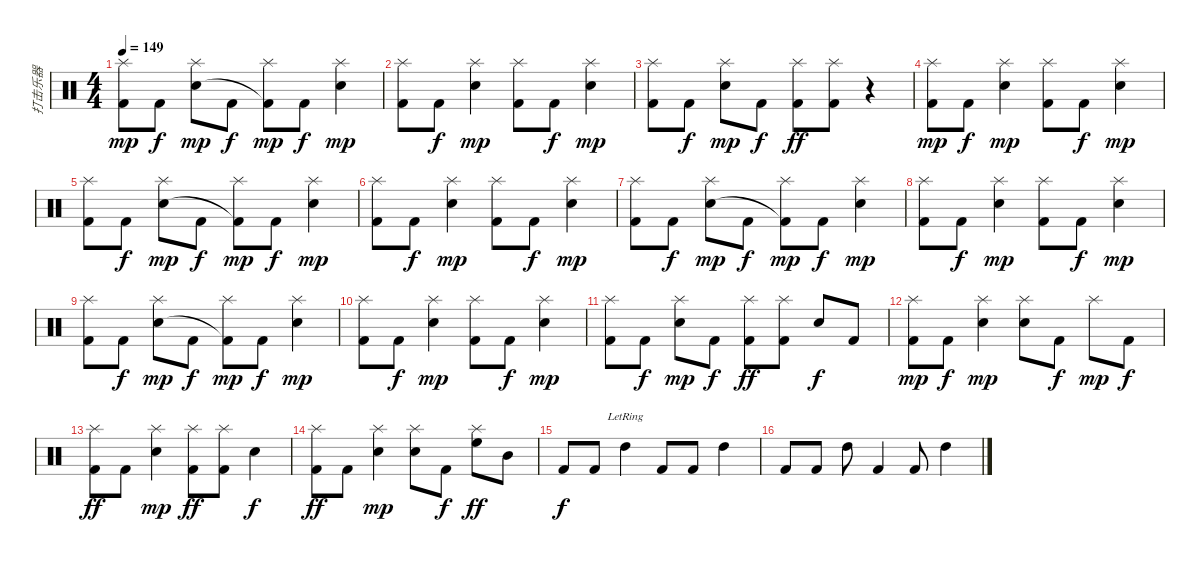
\track ("打击乐器" "打击乐器") {instrument percussion}
\staff {score}
\articulation defaults
\ts (4 4)
\tempo 149
\clef neutral
\ks c
("Splash (hit)" "Kick (hit) 2").8{dy mp} "Kick (hit) 2".8{dy f} ("Splash (hit)" "Electric Snare (hit)").8{dy mp} "Kick (hit) 2".8{dy f} ("Splash (hit)" "Kick (hit) 2"{t}).8{dy mp} "Kick (hit) 2".8{dy f} ("Splash (hit)" "Electric Snare (hit)").4{dy mp} |
("Splash (hit)" "Kick (hit) 2").8 "Kick (hit) 2".8{dy f} ("Splash (hit)" "Electric Snare (hit)").4{dy mp} ("Splash (hit)" "Kick (hit) 2").8 "Kick (hit) 2".8{dy f} ("Splash (hit)" "Electric Snare (hit)").4{dy mp} |
("Splash (hit)" "Kick (hit) 2").8 "Kick (hit) 2".8{dy f} ("Splash (hit)" "Electric Snare (hit)").8{dy mp} "Kick (hit) 2".8{dy f} ("Splash (hit)" "Kick (hit) 2").8{dy ff} ("Splash (hit)" "Kick (hit) 2").8 r.4 |
("Splash (hit)" "Kick (hit) 2").8{dy mp} "Kick (hit) 2".8{dy f} ("Splash (hit)" "Electric Snare (hit)").4{dy mp} ("Splash (hit)" "Kick (hit) 2").8 "Kick (hit) 2".8{dy f} ("Splash (hit)" "Electric Snare (hit)").4{dy mp} |
("Splash (hit)" "Kick (hit) 2").8 "Kick (hit) 2".8{dy f} ("Splash (hit)" "Electric Snare (hit)").8{dy mp} "Kick (hit) 2".8{dy f} ("Splash (hit)" "Kick (hit) 2"{t}).8{dy mp} "Kick (hit) 2".8{dy f} ("Splash (hit)" "Electric Snare (hit)").4{dy mp} |
("Splash (hit)" "Kick (hit) 2").8 "Kick (hit) 2".8{dy f} ("Splash (hit)" "Electric Snare (hit)").4{dy mp} ("Splash (hit)" "Kick (hit) 2").8 "Kick (hit) 2".8{dy f} ("Splash (hit)" "Electric Snare (hit)").4{dy mp} |
("Splash (hit)" "Kick (hit) 2").8 "Kick (hit) 2".8{dy f} ("Splash (hit)" "Electric Snare (hit)").8{dy mp} "Kick (hit) 2".8{dy f} ("Splash (hit)" "Kick (hit) 2"{t}).8{dy mp} "Kick (hit) 2".8{dy f} ("Splash (hit)" "Electric Snare (hit)").4{dy mp} |
("Splash (hit)" "Kick (hit) 2").8 "Kick (hit) 2".8{dy f} ("Splash (hit)" "Electric Snare (hit)").4{dy mp} ("Splash (hit)" "Kick (hit) 2").8 "Kick (hit) 2".8{dy f} ("Splash (hit)" "Electric Snare (hit)").4{dy mp} |
("Splash (hit)" "Kick (hit) 2").8 "Kick (hit) 2".8{dy f} ("Splash (hit)" "Electric Snare (hit)").8{dy mp} "Kick (hit) 2".8{dy f} ("Splash (hit)" "Kick (hit) 2"{t}).8{dy mp} "Kick (hit) 2".8{dy f} ("Splash (hit)" "Electric Snare (hit)").4{dy mp} |
("Splash (hit)" "Kick (hit) 2").8 "Kick (hit) 2".8{dy f} ("Splash (hit)" "Electric Snare (hit)").4{dy mp} ("Splash (hit)" "Kick (hit) 2").8 "Kick (hit) 2".8{dy f} ("Splash (hit)" "Electric Snare (hit)").4{dy mp} |
("Splash (hit)" "Kick (hit) 2").8 "Kick (hit) 2".8{dy f} ("Splash (hit)" "Electric Snare (hit)").8{dy mp} "Kick (hit) 2".8{dy f} ("Splash (hit)" "Kick (hit) 2").8{dy ff} ("Splash (hit)" "Kick (hit) 2").8 "Electric Snare (hit)".8{dy f} "Kick (hit) 2".8 |
("Splash (hit)" "Kick (hit) 2").8{dy mp} "Kick (hit) 2".8{dy f} ("Splash (hit)" "Electric Snare (hit)").4{dy mp} ("Splash (hit)" "Electric Snare (hit)").8 "Kick (hit) 2".8{dy f} "Splash (hit)".8{dy mp} "Kick (hit) 2".8{dy f} |
("Splash (hit)" "Kick (hit) 2").8{dy ff} "Kick (hit) 2".8 ("Splash (hit)" "Electric Snare (hit)").4{dy mp} ("Splash (hit)" "Kick (hit) 2").8{dy ff} ("Splash (hit)" "Kick (hit) 2").8 "Electric Snare (hit)".4{dy f} |
("Splash (hit)" "Kick (hit) 2").8{dy ff} "Kick (hit) 2".8 ("Splash (hit)" "Electric Snare (hit)").4{dy mp} ("Splash (hit)" "Electric Snare (hit)").8 "Kick (hit) 2".8{dy f} ("Splash (hit)" "High Floor Tom (hit)").8{dy ff} "Mid Tom (hit)".8 |
"Kick (hit) 2".8{dy f} "Kick (hit) 2".8 "High Tom (hit)"{lr}.4 "Kick (hit) 2".8 "Kick (hit) 2".8 "High Tom (hit)".4 |
"Kick (hit) 2".8 "Kick (hit) 2".8 "High Tom (hit)".8 "Kick (hit) 2".4 "Kick (hit) 2".8 "High Tom (hit)".4
